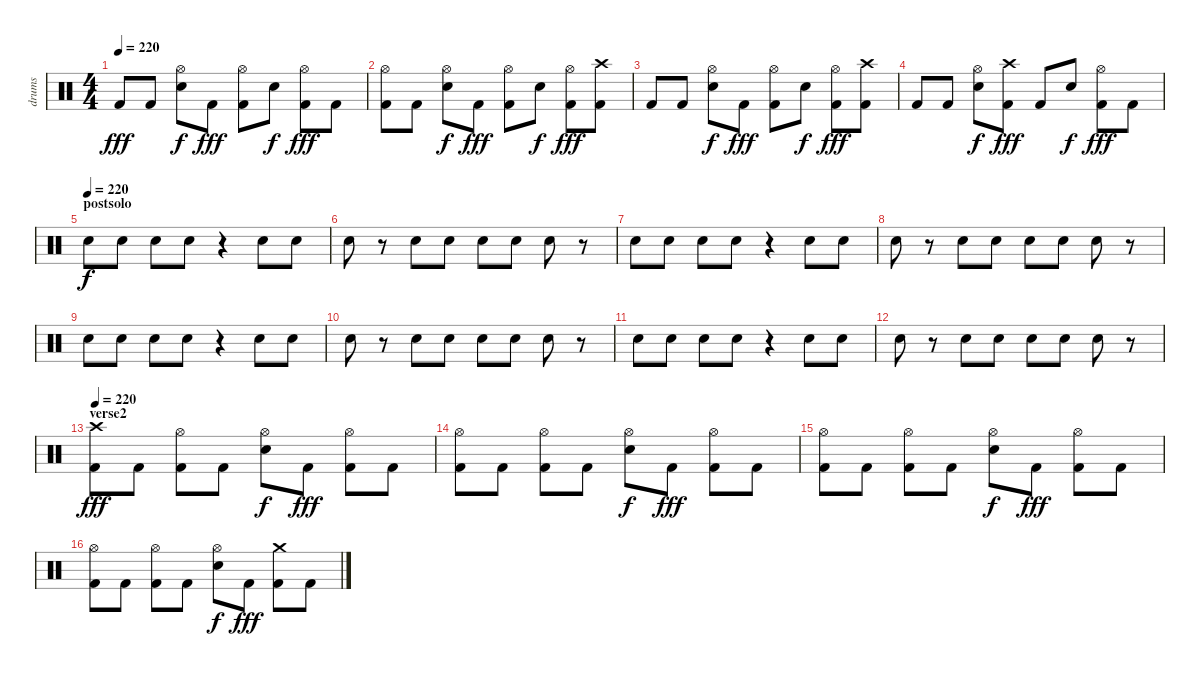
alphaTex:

\track ("drums" "drums") {instrument percussion}
\staff {score}
\articulation defaults
\ts (4 4)
\tempo 220
\clef neutral
\ks c "Kick (hit) 2".8{dy fff} "Kick (hit) 2".8
("Hi-Hat (open)" "Snare (hit) 2").8{dy f} "Kick (hit) 2".8{dy fff} ("Hi-Hat (open)" "Kick (hit) 2").8 "Snare (hit) 2".8{dy f} ("Hi-Hat (open)" "Kick (hit) 2").8{dy fff} "Kick (hit) 2".8 |
("Hi-Hat (open)" "Kick (hit) 2").8 "Kick (hit) 2".8 ("Hi-Hat (open)" "Snare (hit) 2").8{dy f} "Kick (hit) 2".8{dy fff} ("Hi-Hat (open)" "Kick (hit) 2").8 "Snare (hit) 2".8{dy f} ("Hi-Hat (open)" "Kick (hit) 2").8{dy fff} ("Crash high (hit)" "Kick (hit) 2").8 |
"Kick (hit) 2".8 "Kick (hit) 2".8 ("Hi-Hat (open)" "Snare (hit) 2").8{dy f} "Kick (hit) 2".8{dy fff} ("Hi-Hat (open)" "Kick (hit) 2").8 "Snare (hit) 2".8{dy f} ("Hi-Hat (open)" "Kick (hit) 2").8{dy fff} ("Crash high (hit)" "Kick (hit) 2").8 |
"Kick (hit) 2".8 "Kick (hit) 2".8 ("Hi-Hat (open)" "Snare (hit) 2").8{dy f} ("Crash high (hit)" "Kick (hit) 2").8{dy fff} "Kick (hit) 2".8 "Snare (hit) 2".8{dy f} ("Hi-Hat (open)" "Kick (hit) 2").8{dy fff} "Kick (hit) 2".8 |
\section ("" "postsolo")
\tempo (220)
"Snare (hit) 2".8{dy f} "Snare (hit) 2".8 "Snare (hit) 2".8 "Snare (hit) 2".8 r.4 "Snare (hit) 2".8 "Snare (hit) 2".8 |
"Snare (hit) 2".8 r.8 "Snare (hit) 2".8 "Snare (hit) 2".8 "Snare (hit) 2".8 "Snare (hit) 2".8 "Snare (hit) 2".8 r.8 |
"Snare (hit) 2".8 "Snare (hit) 2".8 "Snare (hit) 2".8 "Snare (hit) 2".8 r.4 "Snare (hit) 2".8 "Snare (hit) 2".8 |
"Snare (hit) 2".8 r.8 "Snare (hit) 2".8 "Snare (hit) 2".8 "Snare (hit) 2".8 "Snare (hit) 2".8 "Snare (hit) 2".8 r.8 |
"Snare (hit) 2".8 "Snare (hit) 2".8 "Snare (hit) 2".8 "Snare (hit) 2".8 r.4 "Snare (hit) 2".8 "Snare (hit) 2".8 |
"Snare (hit) 2".8 r.8 "Snare (hit) 2".8 "Snare (hit) 2".8 "Snare (hit) 2".8 "Snare (hit) 2".8 "Snare (hit) 2".8 r.8 |
"Snare (hit) 2".8 "Snare (hit) 2".8 "Snare (hit) 2".8 "Snare (hit) 2".8 r.4 "Snare (hit) 2".8 "Snare (hit) 2".8 |
"Snare (hit) 2".8 r.8 "Snare (hit) 2".8 "Snare (hit) 2".8 "Snare (hit) 2".8 "Snare (hit) 2".8 "Snare (hit) 2".8 r.8 |
\section ("" "verse2")
\tempo 220
("Crash high (hit)" "Kick (hit) 2").8{dy fff} "Kick (hit) 2".8 ("Hi-Hat (open)" "Kick (hit) 2").8 "Kick (hit) 2".8 ("Hi-Hat (open)" "Snare (hit) 2").8{dy f} "Kick (hit) 2".8{dy fff} ("Hi-Hat (open)" "Kick (hit) 2").8 "Kick (hit) 2".8 |
("Hi-Hat (open)" "Kick (hit) 2").8 "Kick (hit) 2".8 ("Hi-Hat (open)" "Kick (hit) 2").8 "Kick (hit) 2".8 ("Hi-Hat (open)" "Snare (hit) 2").8{dy f} "Kick (hit) 2".8{dy fff} ("Hi-Hat (open)" "Kick (hit) 2").8 "Kick (hit) 2".8 |
("Hi-Hat (open)" "Kick (hit) 2").8 "Kick (hit) 2".8 ("Hi-Hat (open)" "Kick (hit) 2").8 "Kick (hit) 2".8 ("Hi-Hat (open)" "Snare (hit) 2").8{dy f} "Kick (hit) 2".8{dy fff} ("Hi-Hat (open)" "Kick (hit) 2").8 "Kick (hit) 2".8 |
("Hi-Hat (open)" "Kick (hit) 2").8 "Kick (hit) 2".8 ("Hi-Hat (open)" "Kick (hit) 2").8 "Kick (hit) 2".8 ("Hi-Hat (open)" "Snare (hit) 2").8{dy f} "Kick (hit) 2".8{dy fff} ("Crash medium (hit)" "Kick (hit) 2").8 "Kick (hit) 2".8
